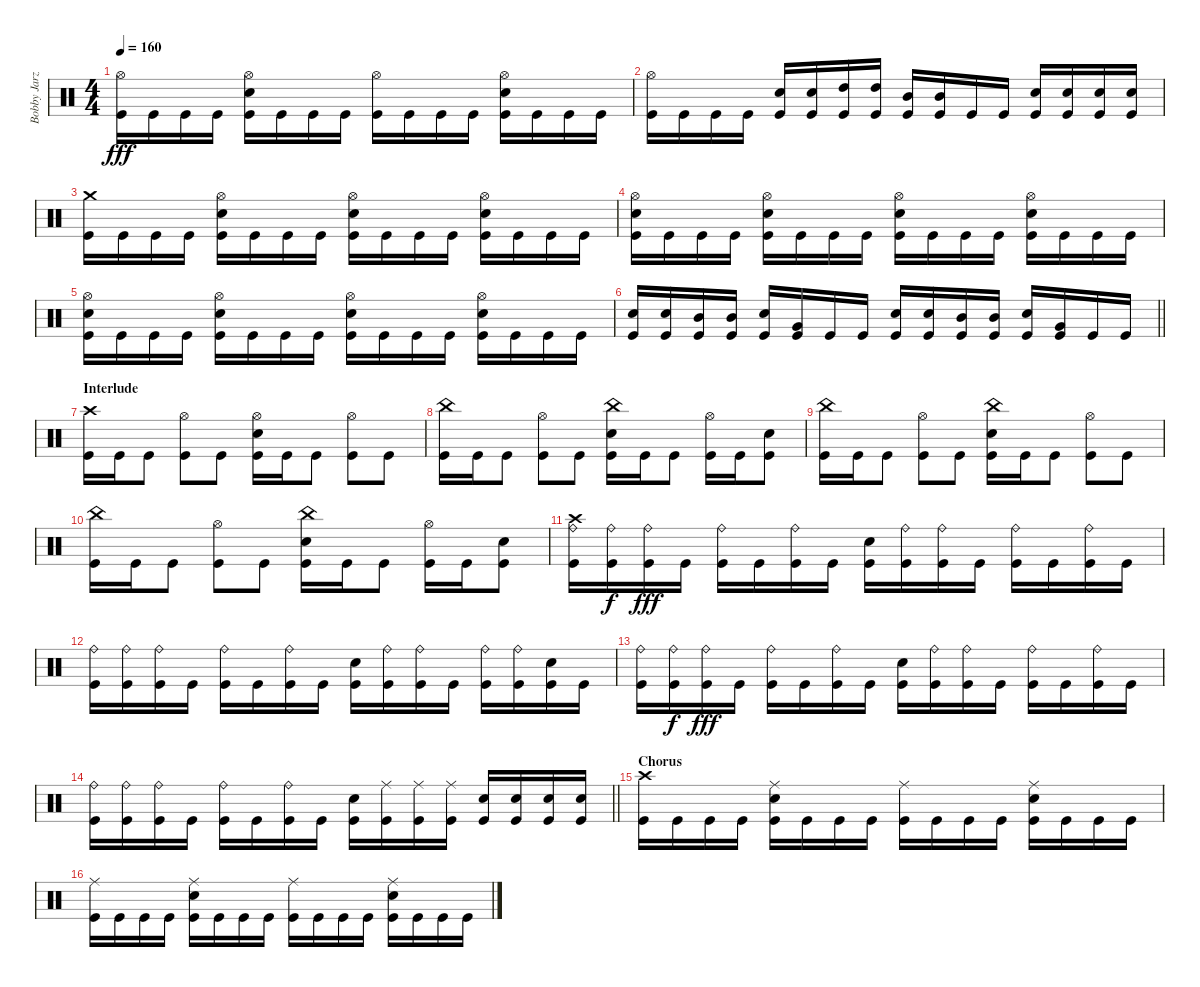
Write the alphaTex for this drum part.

\track ("Bobby Jarzombek" "Bobby Jarz") {instrument percussion}
\staff {score}
\articulation defaults
\ts (4 4)
\tempo 160
\clef neutral
\ks c
("Hi-Hat (open)" "Kick (hit)").16{dy fff} "Kick (hit)".16 "Kick (hit)".16 "Kick (hit)".16 ("Hi-Hat (open)" "Electric Snare (hit)" "Kick (hit)").16 "Kick (hit)".16 "Kick (hit)".16 "Kick (hit)".16 ("Hi-Hat (open)" "Kick (hit)").16 "Kick (hit)".16 "Kick (hit)".16 "Kick (hit)".16 ("Hi-Hat (open)" "Electric Snare (hit)" "Kick (hit)").16 "Kick (hit)".16 "Kick (hit)".16 "Kick (hit)".16 |
("Hi-Hat (open)" "Kick (hit)").16 "Kick (hit)".16 "Kick (hit)".16 "Kick (hit)".16 ("Electric Snare (hit)" "Kick (hit)").16 ("Electric Snare (hit)" "Kick (hit)").16 ("High Tom (hit)" "Kick (hit)").16 ("High Tom (hit)" "Kick (hit)").16 ("Mid Tom (hit)" "Kick (hit)").16 ("Mid Tom (hit)" "Kick (hit)").16 "Kick (hit)".16 "Kick (hit)".16 ("Electric Snare (hit)" "Kick (hit)").16 ("Electric Snare (hit)" "Kick (hit)").16 ("Electric Snare (hit)" "Kick (hit)").16 ("Electric Snare (hit)" "Kick (hit)").16 |
("Crash medium (hit)" "Kick (hit)").16 "Kick (hit)".16 "Kick (hit)".16 "Kick (hit)".16 ("Hi-Hat (open)" "Electric Snare (hit)" "Kick (hit)").16 "Kick (hit)".16 "Kick (hit)".16 "Kick (hit)".16 ("Hi-Hat (open)" "Electric Snare (hit)" "Kick (hit)").16 "Kick (hit)".16 "Kick (hit)".16 "Kick (hit)".16 ("Hi-Hat (open)" "Electric Snare (hit)" "Kick (hit)").16 "Kick (hit)".16 "Kick (hit)".16 "Kick (hit)".16 |
("Hi-Hat (open)" "Electric Snare (hit)" "Kick (hit)").16 "Kick (hit)".16 "Kick (hit)".16 "Kick (hit)".16 ("Hi-Hat (open)" "Electric Snare (hit)" "Kick (hit)").16 "Kick (hit)".16 "Kick (hit)".16 "Kick (hit)".16 ("Hi-Hat (open)" "Electric Snare (hit)" "Kick (hit)").16 "Kick (hit)".16 "Kick (hit)".16 "Kick (hit)".16 ("Hi-Hat (open)" "Electric Snare (hit)" "Kick (hit)").16 "Kick (hit)".16 "Kick (hit)".16 "Kick (hit)".16 |
("Hi-Hat (open)" "Electric Snare (hit)" "Kick (hit)").16 "Kick (hit)".16 "Kick (hit)".16 "Kick (hit)".16 ("Hi-Hat (open)" "Electric Snare (hit)" "Kick (hit)").16 "Kick (hit)".16 "Kick (hit)".16 "Kick (hit)".16 ("Hi-Hat (open)" "Electric Snare (hit)" "Kick (hit)").16 "Kick (hit)".16 "Kick (hit)".16 "Kick (hit)".16 ("Hi-Hat (open)" "Electric Snare (hit)" "Kick (hit)").16 "Kick (hit)".16 "Kick (hit)".16 "Kick (hit)".16 |
\barLineRight lightlight
("Electric Snare (hit)" "Kick (hit)").16 ("Electric Snare (hit)" "Kick (hit)").16 ("Mid Tom (hit)" "Kick (hit)").16 ("Mid Tom (hit)" "Kick (hit)").16 ("Electric Snare (hit)" "Kick (hit)").16 ("Very Low Tom (hit)" "Kick (hit)").16 "Kick (hit)".16 "Kick (hit)".16 ("Electric Snare (hit)" "Kick (hit)").16 ("Electric Snare (hit)" "Kick (hit)").16 ("Mid Tom (hit)" "Kick (hit)").16 ("Mid Tom (hit)" "Kick (hit)").16 ("Electric Snare (hit)" "Kick (hit)").16 ("Very Low Tom (hit)" "Kick (hit)").16 "Kick (hit)".16 "Kick (hit)".16 |
\section ("" "Interlude")
("Crash high (hit)" "Kick (hit)").16 "Kick (hit)".16 "Kick (hit)".8 ("Hi-Hat (open)" "Kick (hit)").8 "Kick (hit)".8 ("Hi-Hat (open)" "Electric Snare (hit)" "Kick (hit)").16 "Kick (hit)".16 "Kick (hit)".8 ("Hi-Hat (open)" "Kick (hit)").8 "Kick (hit)".8 |
("China (hit)" "Kick (hit)").16 "Kick (hit)".16 "Kick (hit)".8 ("Hi-Hat (open)" "Kick (hit)").8 "Kick (hit)".8 ("China (hit)" "Electric Snare (hit)" "Kick (hit)").16 "Kick (hit)".16 "Kick (hit)".8 ("Hi-Hat (open)" "Kick (hit)").16 "Kick (hit)".16 ("Electric Snare (hit)" "Kick (hit)").8 |
("China (hit)" "Kick (hit)").16 "Kick (hit)".16 "Kick (hit)".8 ("Hi-Hat (open)" "Kick (hit)").8 "Kick (hit)".8 ("China (hit)" "Electric Snare (hit)" "Kick (hit)").16 "Kick (hit)".16 "Kick (hit)".8 ("Hi-Hat (open)" "Kick (hit)").8 "Kick (hit)".8 |
("China (hit)" "Kick (hit)").16 "Kick (hit)".16 "Kick (hit)".8 ("Hi-Hat (open)" "Kick (hit)").8 "Kick (hit)".8 ("China (hit)" "Electric Snare (hit)" "Kick (hit)").16 "Kick (hit)".16 "Kick (hit)".8 ("Hi-Hat (open)" "Kick (hit)").16 "Kick (hit)".16 ("Electric Snare (hit)" "Kick (hit)").8 |
("Crash high (hit)" "Ride (bell)" "Kick (hit)").16 ("Ride (bell)" "Kick (hit)").16{dy f} ("Ride (bell)" "Kick (hit)").16{dy fff} "Kick (hit)".16 ("Ride (bell)" "Kick (hit)").16 "Kick (hit)".16 ("Ride (bell)" "Kick (hit)").16 "Kick (hit)".16 ("Electric Snare (hit)" "Kick (hit)").16 ("Ride (bell)" "Kick (hit)").16 ("Ride (bell)" "Kick (hit)").16 "Kick (hit)".16 ("Ride (bell)" "Kick (hit)").16 "Kick (hit)".16 ("Ride (bell)" "Kick (hit)").16 "Kick (hit)".16 |
("Ride (bell)" "Kick (hit)").16 ("Ride (bell)" "Kick (hit)").16 ("Ride (bell)" "Kick (hit)").16 "Kick (hit)".16 ("Ride (bell)" "Kick (hit)").16 "Kick (hit)".16 ("Ride (bell)" "Kick (hit)").16 "Kick (hit)".16 ("Electric Snare (hit)" "Kick (hit)").16 ("Ride (bell)" "Kick (hit)").16 ("Ride (bell)" "Kick (hit)").16 "Kick (hit)".16 ("Ride (bell)" "Kick (hit)").16 ("Ride (bell)" "Kick (hit)").16 ("Electric Snare (hit)" "Kick (hit)").16 "Kick (hit)".16 |
("Ride (bell)" "Kick (hit)").16 ("Ride (bell)" "Kick (hit)").16{dy f} ("Ride (bell)" "Kick (hit)").16{dy fff} "Kick (hit)".16 ("Ride (bell)" "Kick (hit)").16 "Kick (hit)".16 ("Ride (bell)" "Kick (hit)").16 "Kick (hit)".16 ("Electric Snare (hit)" "Kick (hit)").16 ("Ride (bell)" "Kick (hit)").16 ("Ride (bell)" "Kick (hit)").16 "Kick (hit)".16 ("Ride (bell)" "Kick (hit)").16 "Kick (hit)".16 ("Ride (bell)" "Kick (hit)").16 "Kick (hit)".16 |
\barLineRight lightlight
("Ride (bell)" "Kick (hit)").16 ("Ride (bell)" "Kick (hit)").16 ("Ride (bell)" "Kick (hit)").16 "Kick (hit)".16 ("Ride (bell)" "Kick (hit)").16 "Kick (hit)".16 ("Ride (bell)" "Kick (hit)").16 "Kick (hit)".16 ("Electric Snare (hit)" "Kick (hit)").16 ("Ride (middle)" "Kick (hit)").16 ("Ride (middle)" "Kick (hit)").16 ("Ride (middle)" "Kick (hit)").16 ("Electric Snare (hit)" "Kick (hit)").16 ("Electric Snare (hit)" "Kick (hit)").16 ("Electric Snare (hit)" "Kick (hit)").16 ("Electric Snare (hit)" "Kick (hit)").16 |
\section ("" "Chorus")
("Crash high (hit)" "Kick (hit)").16 "Kick (hit)".16 "Kick (hit)".16 "Kick (hit)".16 ("Ride (middle)" "Electric Snare (hit)" "Kick (hit)").16 "Kick (hit)".16 "Kick (hit)".16 "Kick (hit)".16 ("Ride (middle)" "Kick (hit)").16 "Kick (hit)".16 "Kick (hit)".16 "Kick (hit)".16 ("Ride (middle)" "Electric Snare (hit)" "Kick (hit)").16 "Kick (hit)".16 "Kick (hit)".16 "Kick (hit)".16 |
("Ride (middle)" "Kick (hit)").16 "Kick (hit)".16 "Kick (hit)".16 "Kick (hit)".16 ("Ride (middle)" "Electric Snare (hit)" "Kick (hit)").16 "Kick (hit)".16 "Kick (hit)".16 "Kick (hit)".16 ("Ride (middle)" "Kick (hit)").16 "Kick (hit)".16 "Kick (hit)".16 "Kick (hit)".16 ("Ride (middle)" "Electric Snare (hit)" "Kick (hit)").16 "Kick (hit)".16 "Kick (hit)".16 "Kick (hit)".16
